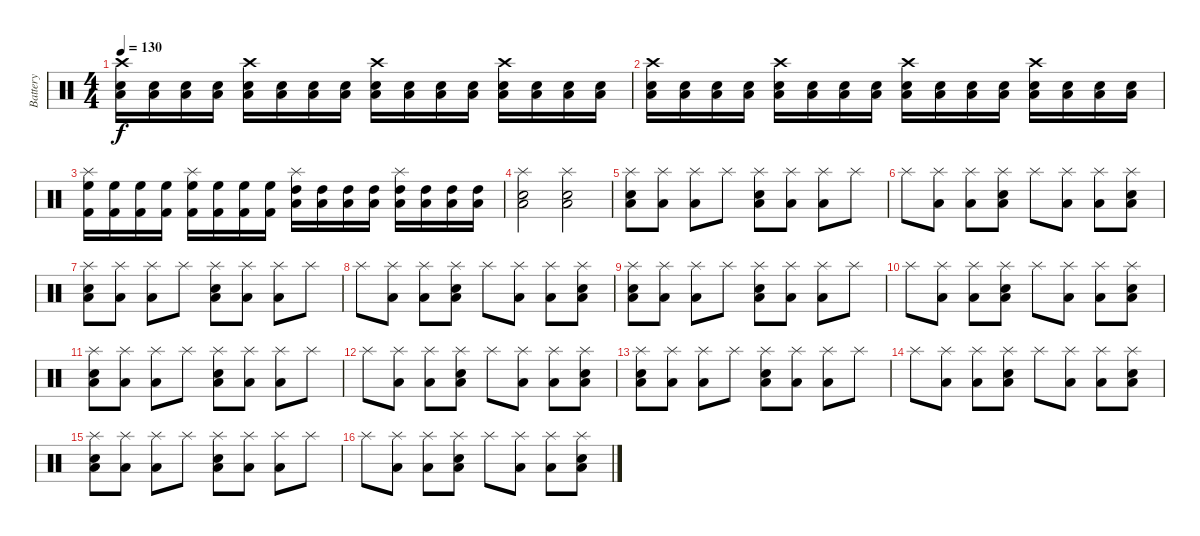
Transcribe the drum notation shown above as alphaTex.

\track ("Battery" "Battery") {instrument percussion}
\staff {score}
\articulation defaults
\ts (4 4)
\tempo 130
\clef neutral
\ks c
("Low Floor Tom (hit)" "Electric Snare (hit)" "Crash high (hit)").16{dy f} ("Low Floor Tom (hit)" "Electric Snare (hit)").16 ("Low Floor Tom (hit)" "Electric Snare (hit)").16 ("Low Floor Tom (hit)" "Electric Snare (hit)").16 ("Low Floor Tom (hit)" "Electric Snare (hit)" "Crash high (hit)").16 ("Low Floor Tom (hit)" "Electric Snare (hit)").16 ("Low Floor Tom (hit)" "Electric Snare (hit)").16 ("Low Floor Tom (hit)" "Electric Snare (hit)").16 ("Snare (hit) 2" "Low Tom (hit)" "Crash high (hit)").16 ("Snare (hit) 2" "Low Tom (hit)").16 ("Snare (hit) 2" "Low Tom (hit)").16 ("Snare (hit) 2" "Low Tom (hit)").16 ("Snare (hit) 2" "Low Tom (hit)" "Crash high (hit)").16 ("Snare (hit) 2" "Low Tom (hit)").16 ("Snare (hit) 2" "Low Tom (hit)").16 ("Snare (hit) 2" "Low Tom (hit)").16 |
("Snare (hit) 2" "Low Tom (hit)" "Crash high (hit)").16 ("Snare (hit) 2" "Low Tom (hit)").16 ("Snare (hit) 2" "Low Tom (hit)").16 ("Snare (hit) 2" "Low Tom (hit)").16 ("Snare (hit) 2" "Low Tom (hit)" "Crash high (hit)").16 ("Snare (hit) 2" "Low Tom (hit)").16 ("Snare (hit) 2" "Low Tom (hit)").16 ("Snare (hit) 2" "Low Tom (hit)").16 ("Low Floor Tom (hit)" "Electric Snare (hit)" "Crash high (hit)").16 ("Low Floor Tom (hit)" "Electric Snare (hit)").16 ("Low Floor Tom (hit)" "Electric Snare (hit)").16 ("Low Floor Tom (hit)" "Electric Snare (hit)").16 ("Low Floor Tom (hit)" "Electric Snare (hit)" "Crash high (hit)").16 ("Low Floor Tom (hit)" "Electric Snare (hit)").16 ("Low Floor Tom (hit)" "Electric Snare (hit)").16 ("Low Floor Tom (hit)" "Electric Snare (hit)").16 |
("Kick (hit) 2" "High Floor Tom (hit)" "Splash (hit)").16 ("Kick (hit) 2" "High Floor Tom (hit)").16 ("Kick (hit) 2" "High Floor Tom (hit)").16 ("Kick (hit) 2" "High Floor Tom (hit)").16 ("Kick (hit) 2" "High Floor Tom (hit)" "Splash (hit)").16 ("Kick (hit) 2" "High Floor Tom (hit)").16 ("Kick (hit) 2" "High Floor Tom (hit)").16 ("Kick (hit) 2" "High Floor Tom (hit)").16 ("Low Floor Tom (hit)" "High Tom (hit)" "Splash (hit)").16 ("Low Floor Tom (hit)" "High Tom (hit)").16 ("Low Floor Tom (hit)" "High Tom (hit)").16 ("Low Floor Tom (hit)" "High Tom (hit)").16 ("Low Floor Tom (hit)" "High Tom (hit)" "Splash (hit)").16 ("Low Floor Tom (hit)" "High Tom (hit)").16 ("Low Floor Tom (hit)" "High Tom (hit)").16 ("Low Floor Tom (hit)" "High Tom (hit)").16 |
("Low Floor Tom (hit)" "Electric Snare (hit)" "Splash (hit)").2 ("Low Floor Tom (hit)" "Electric Snare (hit)" "Splash (hit)").2 |
("Splash (hit)" "Low Floor Tom (hit)" "Electric Snare (hit)").8 ("Splash (hit)" "Low Floor Tom (hit)").8 ("Splash (hit)" "Low Floor Tom (hit)").8 "Splash (hit)".8 ("Splash (hit)" "Low Floor Tom (hit)" "Electric Snare (hit)").8 ("Splash (hit)" "Low Floor Tom (hit)").8 ("Splash (hit)" "Low Floor Tom (hit)").8 "Splash (hit)".8 |
"Splash (hit)".8 ("Splash (hit)" "Low Floor Tom (hit)").8 ("Splash (hit)" "Low Floor Tom (hit)").8 ("Splash (hit)" "Low Floor Tom (hit)" "Electric Snare (hit)").8 "Splash (hit)".8 ("Splash (hit)" "Low Floor Tom (hit)").8 ("Splash (hit)" "Low Floor Tom (hit)").8 ("Splash (hit)" "Low Floor Tom (hit)" "Electric Snare (hit)").8 |
("Splash (hit)" "Low Floor Tom (hit)" "Electric Snare (hit)").8 ("Splash (hit)" "Low Floor Tom (hit)").8 ("Splash (hit)" "Low Floor Tom (hit)").8 "Splash (hit)".8 ("Splash (hit)" "Low Floor Tom (hit)" "Electric Snare (hit)").8 ("Splash (hit)" "Low Floor Tom (hit)").8 ("Splash (hit)" "Low Floor Tom (hit)").8 "Splash (hit)".8 |
"Splash (hit)".8 ("Splash (hit)" "Low Floor Tom (hit)").8 ("Splash (hit)" "Low Floor Tom (hit)").8 ("Splash (hit)" "Low Floor Tom (hit)" "Electric Snare (hit)").8 "Splash (hit)".8 ("Splash (hit)" "Low Floor Tom (hit)").8 ("Splash (hit)" "Low Floor Tom (hit)").8 ("Splash (hit)" "Low Floor Tom (hit)" "Electric Snare (hit)").8 |
("Splash (hit)" "Low Floor Tom (hit)" "Electric Snare (hit)").8 ("Splash (hit)" "Low Floor Tom (hit)").8 ("Splash (hit)" "Low Floor Tom (hit)").8 "Splash (hit)".8 ("Splash (hit)" "Low Floor Tom (hit)" "Electric Snare (hit)").8 ("Splash (hit)" "Low Floor Tom (hit)").8 ("Splash (hit)" "Low Floor Tom (hit)").8 "Splash (hit)".8 |
"Splash (hit)".8 ("Splash (hit)" "Low Floor Tom (hit)").8 ("Splash (hit)" "Low Floor Tom (hit)").8 ("Splash (hit)" "Low Floor Tom (hit)" "Electric Snare (hit)").8 "Splash (hit)".8 ("Splash (hit)" "Low Floor Tom (hit)").8 ("Splash (hit)" "Low Floor Tom (hit)").8 ("Splash (hit)" "Low Floor Tom (hit)" "Electric Snare (hit)").8 |
("Splash (hit)" "Low Floor Tom (hit)" "Electric Snare (hit)").8 ("Splash (hit)" "Low Floor Tom (hit)").8 ("Splash (hit)" "Low Floor Tom (hit)").8 "Splash (hit)".8 ("Splash (hit)" "Low Floor Tom (hit)" "Electric Snare (hit)").8 ("Splash (hit)" "Low Floor Tom (hit)").8 ("Splash (hit)" "Low Floor Tom (hit)").8 "Splash (hit)".8 |
"Splash (hit)".8 ("Splash (hit)" "Low Floor Tom (hit)").8 ("Splash (hit)" "Low Floor Tom (hit)").8 ("Splash (hit)" "Low Floor Tom (hit)" "Electric Snare (hit)").8 "Splash (hit)".8 ("Splash (hit)" "Low Floor Tom (hit)").8 ("Splash (hit)" "Low Floor Tom (hit)").8 ("Splash (hit)" "Low Floor Tom (hit)" "Electric Snare (hit)").8 |
("Splash (hit)" "Low Floor Tom (hit)" "Electric Snare (hit)").8 ("Splash (hit)" "Low Floor Tom (hit)").8 ("Splash (hit)" "Low Floor Tom (hit)").8 "Splash (hit)".8 ("Splash (hit)" "Low Floor Tom (hit)" "Electric Snare (hit)").8 ("Splash (hit)" "Low Floor Tom (hit)").8 ("Splash (hit)" "Low Floor Tom (hit)").8 "Splash (hit)".8 |
"Splash (hit)".8 ("Splash (hit)" "Low Floor Tom (hit)").8 ("Splash (hit)" "Low Floor Tom (hit)").8 ("Splash (hit)" "Low Floor Tom (hit)" "Electric Snare (hit)").8 "Splash (hit)".8 ("Splash (hit)" "Low Floor Tom (hit)").8 ("Splash (hit)" "Low Floor Tom (hit)").8 ("Splash (hit)" "Low Floor Tom (hit)" "Electric Snare (hit)").8 |
("Splash (hit)" "Low Floor Tom (hit)" "Electric Snare (hit)").8 ("Splash (hit)" "Low Floor Tom (hit)").8 ("Splash (hit)" "Low Floor Tom (hit)").8 "Splash (hit)".8 ("Splash (hit)" "Low Floor Tom (hit)" "Electric Snare (hit)").8 ("Splash (hit)" "Low Floor Tom (hit)").8 ("Splash (hit)" "Low Floor Tom (hit)").8 "Splash (hit)".8 |
"Splash (hit)".8 ("Splash (hit)" "Low Floor Tom (hit)").8 ("Splash (hit)" "Low Floor Tom (hit)").8 ("Splash (hit)" "Low Floor Tom (hit)" "Electric Snare (hit)").8 "Splash (hit)".8 ("Splash (hit)" "Low Floor Tom (hit)").8 ("Splash (hit)" "Low Floor Tom (hit)").8 ("Splash (hit)" "Low Floor Tom (hit)" "Electric Snare (hit)").8
